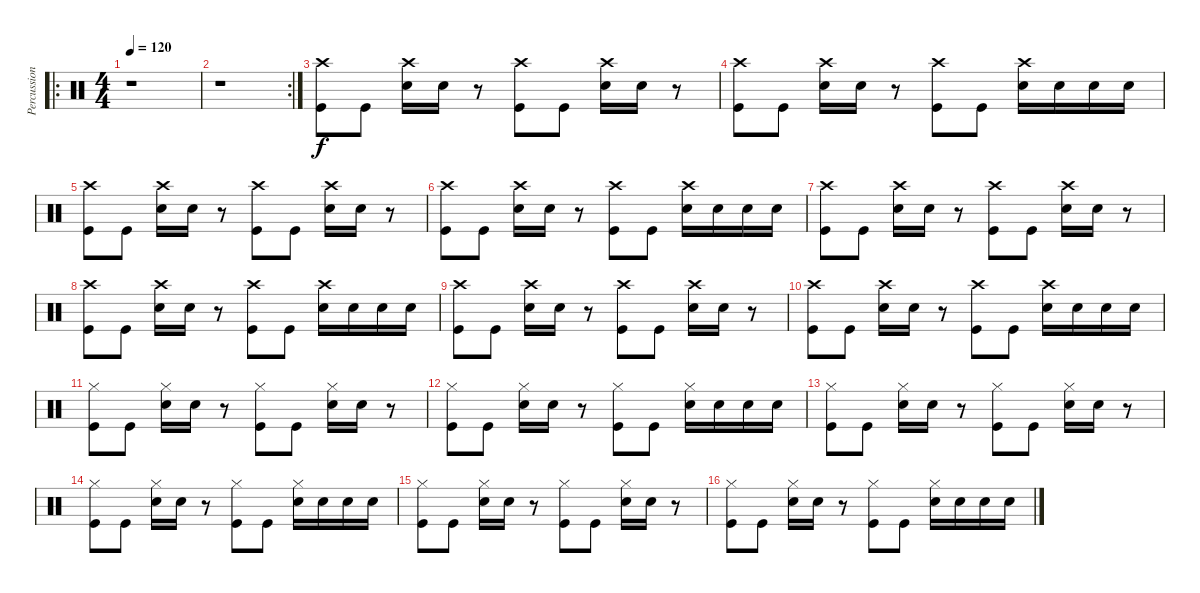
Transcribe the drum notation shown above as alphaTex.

\track ("Percussion" "Percussion") {instrument percussion}
\staff {score}
\articulation defaults
\ro
\ts (4 4)
\tempo 120
\clef neutral
\ks c
r.1{dy f} |
\rc 2
r.1 |
("Crash high (hit)" "Kick (hit)").8 "Kick (hit)".8 ("Crash high (hit)" "Snare (hit) 2").16 "Snare (hit) 2".16 r.8 ("Crash high (hit)" "Kick (hit)").8 "Kick (hit)".8 ("Crash high (hit)" "Snare (hit) 2").16 "Snare (hit) 2".16 r.8 |
("Crash high (hit)" "Kick (hit)").8 "Kick (hit)".8 ("Crash high (hit)" "Snare (hit) 2").16 "Snare (hit) 2".16 r.8 ("Crash high (hit)" "Kick (hit)").8 "Kick (hit)".8 ("Crash high (hit)" "Snare (hit) 2").16 "Snare (hit) 2".16 "Electric Snare (hit)".16 "Snare (hit) 2".16 |
("Crash high (hit)" "Kick (hit)").8 "Kick (hit)".8 ("Crash high (hit)" "Snare (hit) 2").16 "Snare (hit) 2".16 r.8 ("Crash high (hit)" "Kick (hit)").8 "Kick (hit)".8 ("Crash high (hit)" "Snare (hit) 2").16 "Snare (hit) 2".16 r.8 |
("Crash high (hit)" "Kick (hit)").8 "Kick (hit)".8 ("Crash high (hit)" "Snare (hit) 2").16 "Snare (hit) 2".16 r.8 ("Crash high (hit)" "Kick (hit)").8 "Kick (hit)".8 ("Crash high (hit)" "Snare (hit) 2").16 "Snare (hit) 2".16 "Electric Snare (hit)".16 "Snare (hit) 2".16 |
("Crash high (hit)" "Kick (hit)").8 "Kick (hit)".8 ("Crash high (hit)" "Snare (hit) 2").16 "Snare (hit) 2".16 r.8 ("Crash high (hit)" "Kick (hit)").8 "Kick (hit)".8 ("Crash high (hit)" "Snare (hit) 2").16 "Snare (hit) 2".16 r.8 |
("Crash high (hit)" "Kick (hit)").8 "Kick (hit)".8 ("Crash high (hit)" "Snare (hit) 2").16 "Snare (hit) 2".16 r.8 ("Crash high (hit)" "Kick (hit)").8 "Kick (hit)".8 ("Crash high (hit)" "Snare (hit) 2").16 "Snare (hit) 2".16 "Electric Snare (hit)".16 "Snare (hit) 2".16 |
("Crash high (hit)" "Kick (hit)").8 "Kick (hit)".8 ("Crash high (hit)" "Snare (hit) 2").16 "Snare (hit) 2".16 r.8 ("Crash high (hit)" "Kick (hit)").8 "Kick (hit)".8 ("Crash high (hit)" "Snare (hit) 2").16 "Snare (hit) 2".16 r.8 |
("Crash high (hit)" "Kick (hit)").8 "Kick (hit)".8 ("Crash high (hit)" "Snare (hit) 2").16 "Snare (hit) 2".16 r.8 ("Crash high (hit)" "Kick (hit)").8 "Kick (hit)".8 ("Crash high (hit)" "Snare (hit) 2").16 "Snare (hit) 2".16 "Electric Snare (hit)".16 "Snare (hit) 2".16 |
("Hi-Hat (closed)" "Kick (hit)").8 "Kick (hit)".8 ("Hi-Hat (closed)" "Snare (hit) 2").16 "Snare (hit) 2".16 r.8 ("Hi-Hat (closed)" "Kick (hit)").8 "Kick (hit)".8 ("Hi-Hat (closed)" "Snare (hit) 2").16 "Snare (hit) 2".16 r.8 |
("Hi-Hat (closed)" "Kick (hit)").8 "Kick (hit)".8 ("Hi-Hat (closed)" "Snare (hit) 2").16 "Snare (hit) 2".16 r.8 ("Hi-Hat (closed)" "Kick (hit)").8 "Kick (hit)".8 ("Hi-Hat (closed)" "Snare (hit) 2").16 "Snare (hit) 2".16 "Electric Snare (hit)".16 "Snare (hit) 2".16 |
("Hi-Hat (closed)" "Kick (hit)").8 "Kick (hit)".8 ("Hi-Hat (closed)" "Snare (hit) 2").16 "Snare (hit) 2".16 r.8 ("Hi-Hat (closed)" "Kick (hit)").8 "Kick (hit)".8 ("Hi-Hat (closed)" "Snare (hit) 2").16 "Snare (hit) 2".16 r.8 |
("Hi-Hat (closed)" "Kick (hit)").8 "Kick (hit)".8 ("Hi-Hat (closed)" "Snare (hit) 2").16 "Snare (hit) 2".16 r.8 ("Hi-Hat (closed)" "Kick (hit)").8 "Kick (hit)".8 ("Hi-Hat (closed)" "Snare (hit) 2").16 "Snare (hit) 2".16 "Electric Snare (hit)".16 "Snare (hit) 2".16 |
("Hi-Hat (closed)" "Kick (hit)").8 "Kick (hit)".8 ("Hi-Hat (closed)" "Snare (hit) 2").16 "Snare (hit) 2".16 r.8 ("Hi-Hat (closed)" "Kick (hit)").8 "Kick (hit)".8 ("Hi-Hat (closed)" "Snare (hit) 2").16 "Snare (hit) 2".16 r.8 |
("Hi-Hat (closed)" "Kick (hit)").8 "Kick (hit)".8 ("Hi-Hat (closed)" "Snare (hit) 2").16 "Snare (hit) 2".16 r.8 ("Hi-Hat (closed)" "Kick (hit)").8 "Kick (hit)".8 ("Hi-Hat (closed)" "Snare (hit) 2").16 "Snare (hit) 2".16 "Electric Snare (hit)".16 "Snare (hit) 2".16
